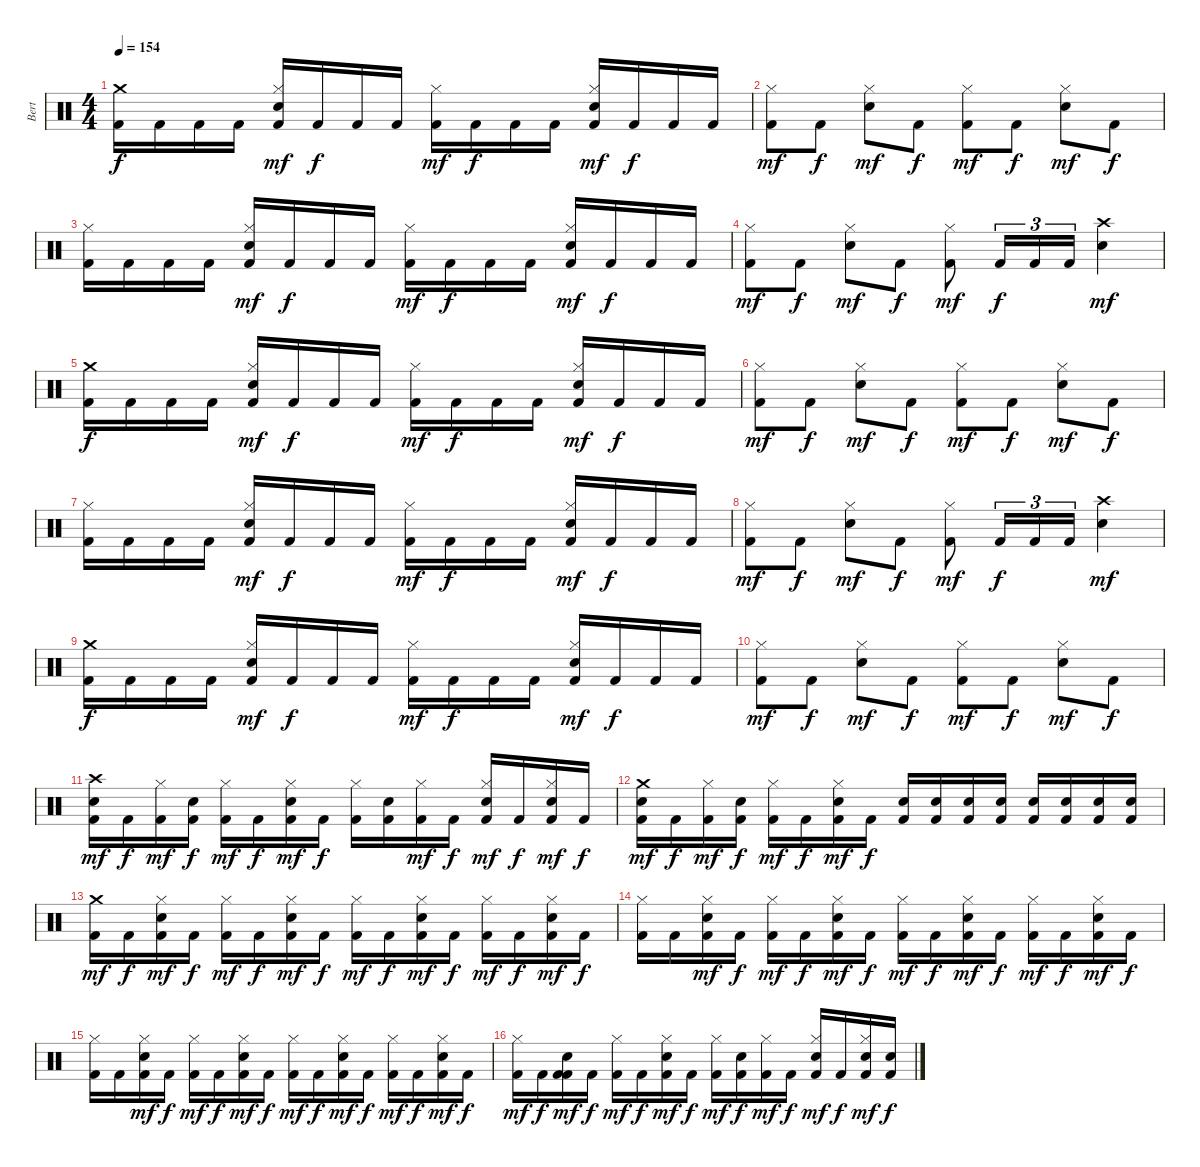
\track ("Bert" "Bert") {instrument percussion}
\staff {score}
\articulation defaults
\ts (4 4)
\tempo 154
\clef neutral
\ks c
("Crash medium (hit)" "Kick (hit) 2").16{dy f} "Kick (hit) 2".16 "Kick (hit) 2".16 "Kick (hit) 2".16 ("Hi-Hat (closed)" "Snare (hit) 2" "Kick (hit) 2").16{dy mf} "Kick (hit) 2".16{dy f} "Kick (hit) 2".16 "Kick (hit) 2".16 ("Hi-Hat (closed)" "Kick (hit) 2").16{dy mf} "Kick (hit) 2".16{dy f} "Kick (hit) 2".16 "Kick (hit) 2".16 ("Hi-Hat (closed)" "Snare (hit) 2" "Kick (hit) 2").16{dy mf} "Kick (hit) 2".16{dy f} "Kick (hit) 2".16 "Kick (hit) 2".16 |
("Hi-Hat (closed)" "Kick (hit) 2").8{dy mf} "Kick (hit) 2".8{dy f} ("Hi-Hat (closed)" "Snare (hit) 2").8{dy mf} "Kick (hit) 2".8{dy f} ("Hi-Hat (closed)" "Kick (hit) 2").8{dy mf} "Kick (hit) 2".8{dy f} ("Hi-Hat (closed)" "Snare (hit) 2").8{dy mf} "Kick (hit) 2".8{dy f} |
("Hi-Hat (closed)" "Kick (hit) 2").16 "Kick (hit) 2".16 "Kick (hit) 2".16 "Kick (hit) 2".16 ("Hi-Hat (closed)" "Snare (hit) 2" "Kick (hit) 2").16{dy mf} "Kick (hit) 2".16{dy f} "Kick (hit) 2".16 "Kick (hit) 2".16 ("Hi-Hat (closed)" "Kick (hit) 2").16{dy mf} "Kick (hit) 2".16{dy f} "Kick (hit) 2".16 "Kick (hit) 2".16 ("Hi-Hat (closed)" "Snare (hit) 2" "Kick (hit) 2").16{dy mf} "Kick (hit) 2".16{dy f} "Kick (hit) 2".16 "Kick (hit) 2".16 |
("Hi-Hat (closed)" "Kick (hit) 2").8{dy mf} "Kick (hit) 2".8{dy f} ("Hi-Hat (closed)" "Snare (hit) 2").8{dy mf} "Kick (hit) 2".8{dy f} ("Hi-Hat (closed)" "Kick (hit) 2").8{dy mf} "Kick (hit) 2".16{tu (3 2) dy f} "Kick (hit) 2".16{tu (3 2)} "Kick (hit) 2".16{tu (3 2)} ("Crash high (hit)" "Snare (hit) 2").4{dy mf} |
("Crash medium (hit)" "Kick (hit) 2").16{dy f} "Kick (hit) 2".16 "Kick (hit) 2".16 "Kick (hit) 2".16 ("Hi-Hat (closed)" "Snare (hit) 2" "Kick (hit) 2").16{dy mf} "Kick (hit) 2".16{dy f} "Kick (hit) 2".16 "Kick (hit) 2".16 ("Hi-Hat (closed)" "Kick (hit) 2").16{dy mf} "Kick (hit) 2".16{dy f} "Kick (hit) 2".16 "Kick (hit) 2".16 ("Hi-Hat (closed)" "Snare (hit) 2" "Kick (hit) 2").16{dy mf} "Kick (hit) 2".16{dy f} "Kick (hit) 2".16 "Kick (hit) 2".16 |
("Hi-Hat (closed)" "Kick (hit) 2").8{dy mf} "Kick (hit) 2".8{dy f} ("Hi-Hat (closed)" "Snare (hit) 2").8{dy mf} "Kick (hit) 2".8{dy f} ("Hi-Hat (closed)" "Kick (hit) 2").8{dy mf} "Kick (hit) 2".8{dy f} ("Hi-Hat (closed)" "Snare (hit) 2").8{dy mf} "Kick (hit) 2".8{dy f} |
("Hi-Hat (closed)" "Kick (hit) 2").16 "Kick (hit) 2".16 "Kick (hit) 2".16 "Kick (hit) 2".16 ("Hi-Hat (closed)" "Snare (hit) 2" "Kick (hit) 2").16{dy mf} "Kick (hit) 2".16{dy f} "Kick (hit) 2".16 "Kick (hit) 2".16 ("Hi-Hat (closed)" "Kick (hit) 2").16{dy mf} "Kick (hit) 2".16{dy f} "Kick (hit) 2".16 "Kick (hit) 2".16 ("Hi-Hat (closed)" "Snare (hit) 2" "Kick (hit) 2").16{dy mf} "Kick (hit) 2".16{dy f} "Kick (hit) 2".16 "Kick (hit) 2".16 |
("Hi-Hat (closed)" "Kick (hit) 2").8{dy mf} "Kick (hit) 2".8{dy f} ("Hi-Hat (closed)" "Snare (hit) 2").8{dy mf} "Kick (hit) 2".8{dy f} ("Hi-Hat (closed)" "Kick (hit) 2").8{dy mf} "Kick (hit) 2".16{tu (3 2) dy f} "Kick (hit) 2".16{tu (3 2)} "Kick (hit) 2".16{tu (3 2)} ("Crash high (hit)" "Snare (hit) 2").4{dy mf} |
("Crash medium (hit)" "Kick (hit) 2").16{dy f} "Kick (hit) 2".16 "Kick (hit) 2".16 "Kick (hit) 2".16 ("Hi-Hat (closed)" "Snare (hit) 2" "Kick (hit) 2").16{dy mf} "Kick (hit) 2".16{dy f} "Kick (hit) 2".16 "Kick (hit) 2".16 ("Hi-Hat (closed)" "Kick (hit) 2").16{dy mf} "Kick (hit) 2".16{dy f} "Kick (hit) 2".16 "Kick (hit) 2".16 ("Hi-Hat (closed)" "Snare (hit) 2" "Kick (hit) 2").16{dy mf} "Kick (hit) 2".16{dy f} "Kick (hit) 2".16 "Kick (hit) 2".16 |
("Hi-Hat (closed)" "Kick (hit) 2").8{dy mf} "Kick (hit) 2".8{dy f} ("Hi-Hat (closed)" "Snare (hit) 2").8{dy mf} "Kick (hit) 2".8{dy f} ("Hi-Hat (closed)" "Kick (hit) 2").8{dy mf} "Kick (hit) 2".8{dy f} ("Hi-Hat (closed)" "Snare (hit) 2").8{dy mf} "Kick (hit) 2".8{dy f} |
("Crash high (hit)" "Snare (hit) 2" "Kick (hit) 2").16{dy mf} "Kick (hit) 2".16{dy f} ("Hi-Hat (closed)" "Kick (hit) 2").16{dy mf} ("Snare (hit) 2" "Kick (hit) 2").16{dy f} ("Hi-Hat (closed)" "Kick (hit) 2").16{dy mf} "Kick (hit) 2".16{dy f} ("Hi-Hat (closed)" "Snare (hit) 2" "Kick (hit) 2").16{dy mf} "Kick (hit) 2".16{dy f} ("Hi-Hat (closed)" "Kick (hit) 2").16 ("Snare (hit) 2" "Kick (hit) 2").16 ("Hi-Hat (closed)" "Kick (hit) 2").16{dy mf} "Kick (hit) 2".16{dy f} ("Hi-Hat (closed)" "Snare (hit) 2" "Kick (hit) 2").16{dy mf} "Kick (hit) 2".16{dy f} ("Hi-Hat (closed)" "Snare (hit) 2" "Kick (hit) 2").16{dy mf} "Kick (hit) 2".16{dy f} |
("Crash medium (hit)" "Snare (hit) 2" "Kick (hit) 2").16{dy mf} "Kick (hit) 2".16{dy f} ("Hi-Hat (closed)" "Kick (hit) 2").16{dy mf} ("Snare (hit) 2" "Kick (hit) 2").16{dy f} ("Hi-Hat (closed)" "Kick (hit) 2").16{dy mf} "Kick (hit) 2".16{dy f} ("Hi-Hat (closed)" "Snare (hit) 2" "Kick (hit) 2").16{dy mf} "Kick (hit) 2".16{dy f} ("Snare (hit) 2" "Kick (hit) 2").16 ("Snare (hit) 2" "Kick (hit) 2").16 ("Snare (hit) 2" "Kick (hit) 2").16 ("Snare (hit) 2" "Kick (hit) 2").16 ("Snare (hit) 2" "Kick (hit) 2").16 ("Snare (hit) 2" "Kick (hit) 2").16 ("Snare (hit) 2" "Kick (hit) 2").16 ("Snare (hit) 2" "Kick (hit) 2").16 |
("Crash medium (hit)" "Kick (hit) 2").16{dy mf} "Kick (hit) 2".16{dy f} ("Hi-Hat (closed)" "Snare (hit) 2" "Kick (hit) 2").16{dy mf} "Kick (hit) 2".16{dy f} ("Hi-Hat (closed)" "Kick (hit) 2").16{dy mf} "Kick (hit) 2".16{dy f} ("Hi-Hat (closed)" "Snare (hit) 2" "Kick (hit) 2").16{dy mf} "Kick (hit) 2".16{dy f} ("Hi-Hat (closed)" "Kick (hit) 2").16{dy mf} "Kick (hit) 2".16{dy f} ("Hi-Hat (closed)" "Snare (hit) 2" "Kick (hit) 2").16{dy mf} "Kick (hit) 2".16{dy f} ("Hi-Hat (closed)" "Kick (hit) 2").16{dy mf} "Kick (hit) 2".16{dy f} ("Hi-Hat (closed)" "Snare (hit) 2" "Kick (hit) 2").16{dy mf} "Kick (hit) 2".16{dy f} |
("Hi-Hat (closed)" "Kick (hit) 2").16 "Kick (hit) 2".16 ("Hi-Hat (closed)" "Snare (hit) 2" "Kick (hit) 2").16{dy mf} "Kick (hit) 2".16{dy f} ("Hi-Hat (closed)" "Kick (hit) 2").16{dy mf} "Kick (hit) 2".16{dy f} ("Hi-Hat (closed)" "Snare (hit) 2" "Kick (hit) 2").16{dy mf} "Kick (hit) 2".16{dy f} ("Hi-Hat (closed)" "Kick (hit) 2").16{dy mf} "Kick (hit) 2".16{dy f} ("Hi-Hat (closed)" "Snare (hit) 2" "Kick (hit) 2").16{dy mf} "Kick (hit) 2".16{dy f} ("Hi-Hat (closed)" "Kick (hit) 2").16{dy mf} "Kick (hit) 2".16{dy f} ("Hi-Hat (closed)" "Snare (hit) 2" "Kick (hit) 2").16{dy mf} "Kick (hit) 2".16{dy f} |
("Hi-Hat (closed)" "Kick (hit) 2").16 "Kick (hit) 2".16 ("Hi-Hat (closed)" "Snare (hit) 2" "Kick (hit) 2").16{dy mf} "Kick (hit) 2".16{dy f} ("Hi-Hat (closed)" "Kick (hit) 2").16{dy mf} "Kick (hit) 2".16{dy f} ("Hi-Hat (closed)" "Snare (hit) 2" "Kick (hit) 2").16{dy mf} "Kick (hit) 2".16{dy f} ("Hi-Hat (closed)" "Kick (hit) 2").16{dy mf} "Kick (hit) 2".16{dy f} ("Hi-Hat (closed)" "Snare (hit) 2" "Kick (hit) 2").16{dy mf} "Kick (hit) 2".16{dy f} ("Hi-Hat (closed)" "Kick (hit) 2").16{dy mf} "Kick (hit) 2".16{dy f} ("Hi-Hat (closed)" "Snare (hit) 2" "Kick (hit) 2").16{dy mf} "Kick (hit) 2".16{dy f} |
("Hi-Hat (closed)" "Kick (hit) 2").16{dy mf} "Kick (hit) 2".16{dy f} ("Kick (hit) 2" "Snare (hit) 2" "Kick (hit) 2").16{dy mf} "Kick (hit) 2".16{dy f} ("Hi-Hat (closed)" "Kick (hit) 2").16{dy mf} "Kick (hit) 2".16{dy f} ("Hi-Hat (closed)" "Snare (hit) 2" "Kick (hit) 2").16{dy mf} "Kick (hit) 2".16{dy f} ("Hi-Hat (closed)" "Kick (hit) 2").16{dy mf} ("Snare (hit) 2" "Kick (hit) 2").16{dy f} ("Hi-Hat (closed)" "Kick (hit) 2").16{dy mf} "Kick (hit) 2".16{dy f} ("Hi-Hat (closed)" "Snare (hit) 2" "Kick (hit) 2").16{dy mf} "Kick (hit) 2".16{dy f} ("Hi-Hat (closed)" "Snare (hit) 2" "Kick (hit) 2").16{dy mf} ("Snare (hit) 2" "Kick (hit) 2").16{dy f}
